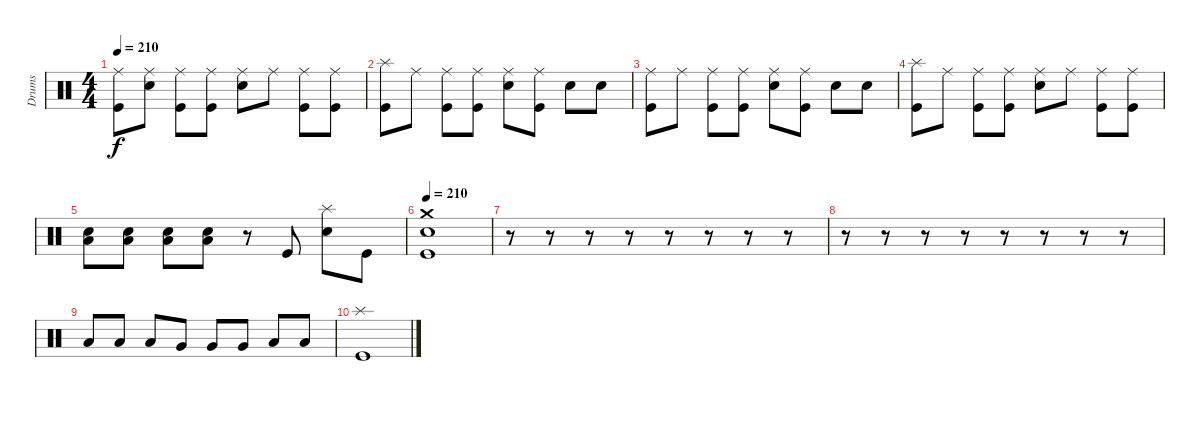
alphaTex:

\track ("Drums" "Drums") {instrument percussion}
\staff {score}
\articulation defaults
\ts (4 4)
\tempo 210
\clef neutral
\ks c
("Ride (middle)" "Kick (hit)").8{dy f} ("Ride (middle)" "Electric Snare (hit)").8 ("Ride (middle)" "Kick (hit)").8 ("Ride (middle)" "Kick (hit)").8 ("Ride (middle)" "Electric Snare (hit)").8 "Ride (middle)".8 ("Ride (middle)" "Kick (hit)").8 ("Ride (middle)" "Kick (hit)").8 |
("Splash (hit)" "Kick (hit)").8 "Ride (middle)".8 ("Ride (middle)" "Kick (hit)").8 ("Ride (middle)" "Kick (hit)").8 ("Ride (middle)" "Electric Snare (hit)").8 ("Ride (middle)" "Kick (hit)").8 "Electric Snare (hit)".8 "Electric Snare (hit)".8 |
("Ride (middle)" "Kick (hit)").8 "Ride (middle)".8 ("Ride (middle)" "Kick (hit)").8 ("Ride (middle)" "Kick (hit)").8 ("Ride (middle)" "Electric Snare (hit)").8 ("Ride (middle)" "Kick (hit)").8 "Electric Snare (hit)".8 "Electric Snare (hit)".8 |
("Splash (hit)" "Kick (hit)").8 "Ride (middle)".8 ("Ride (middle)" "Kick (hit)").8 ("Ride (middle)" "Kick (hit)").8 ("Ride (middle)" "Electric Snare (hit)").8 "Ride (middle)".8 ("Ride (middle)" "Kick (hit)").8 ("Ride (middle)" "Kick (hit)").8 |
("Low Floor Tom (hit)" "Electric Snare (hit)").8 ("Low Floor Tom (hit)" "Electric Snare (hit)").8 ("Low Floor Tom (hit)" "Electric Snare (hit)").8 ("Low Floor Tom (hit)" "Electric Snare (hit)").8 r.8 "Kick (hit)".8 ("Splash (hit)" "Electric Snare (hit)").8 "Kick (hit)".8 |
\tempo 210
("Crash medium (hit)" "Electric Snare (hit)" "Kick (hit)").1 |
r.8 r.8 r.8 r.8 r.8 r.8 r.8 r.8 |
r.8 r.8 r.8 r.8 r.8 r.8 r.8 r.8 |
"Low Tom (hit)".8 "Low Tom (hit)".8 "Low Tom (hit)".8 "Very Low Tom (hit)".8 "Very Low Tom (hit)".8 "Very Low Tom (hit)".8 "Low Floor Tom (hit)".8 "Low Floor Tom (hit)".8 |
("Splash (hit)" "Kick (hit)").1
